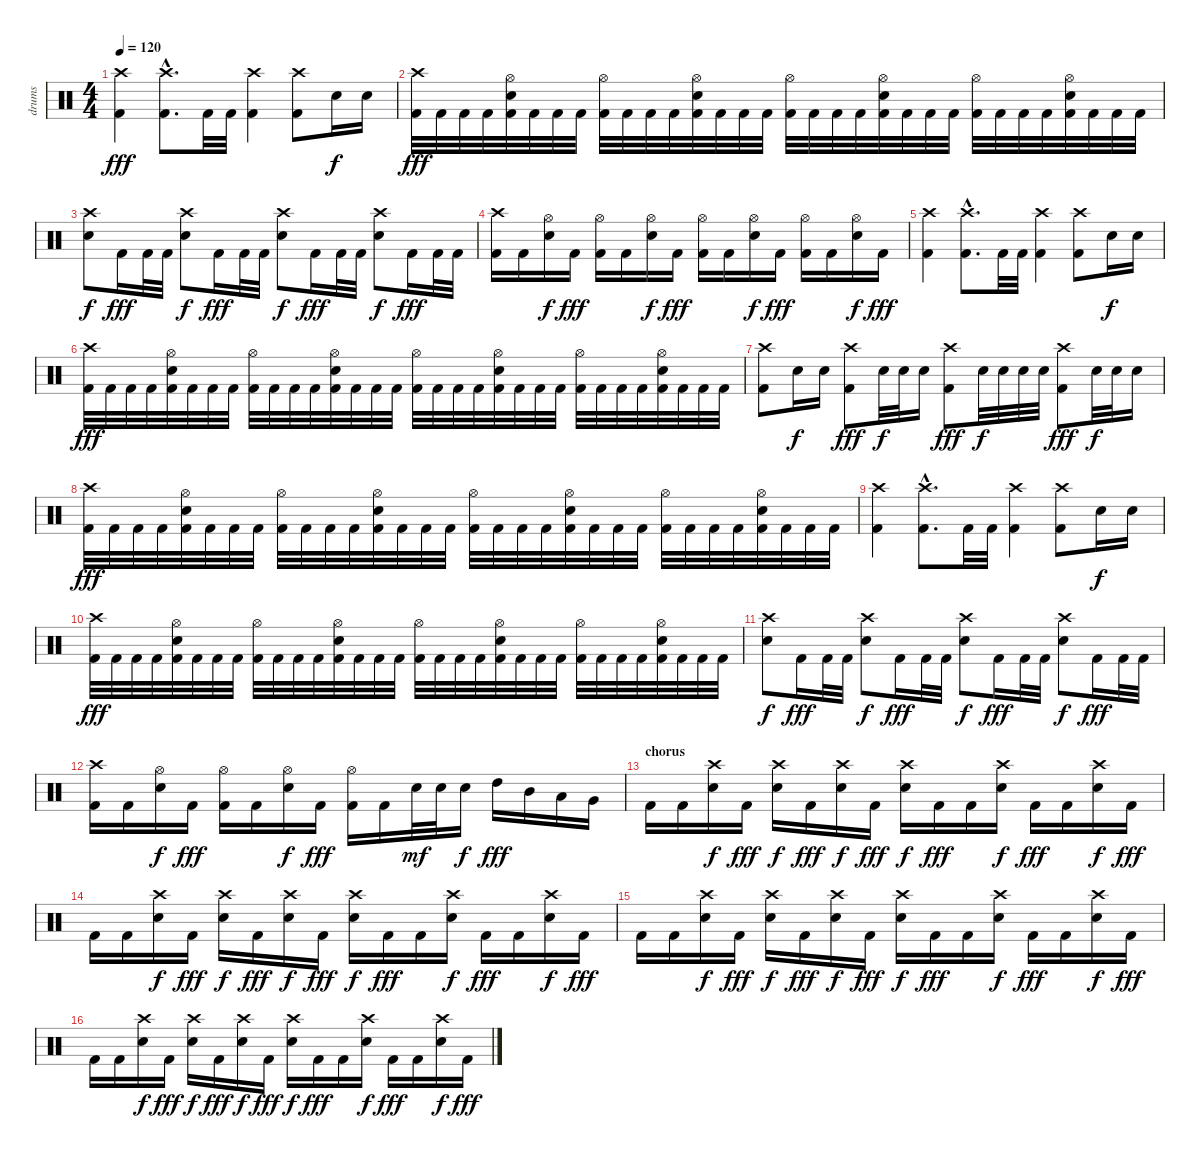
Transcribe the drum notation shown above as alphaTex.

\track ("drums" "drums") {instrument percussion}
\staff {score}
\articulation defaults
\ts (4 4)
\tempo 120
\clef neutral
\ks c
("Crash high (hit)" "Kick (hit) 2").4{dy fff} ("Crash high (hit)"{hac} "Kick (hit) 2"{hac}).8{d} "Kick (hit) 2".32 "Kick (hit) 2".32 ("Crash high (hit)" "Kick (hit) 2").4 ("Crash high (hit)" "Kick (hit) 2").8 "Snare (hit) 2".16{dy f} "Snare (hit) 2".16 |
("Crash high (hit)" "Kick (hit) 2").32{dy fff} "Kick (hit) 2".32 "Kick (hit) 2".32 "Kick (hit) 2".32 ("Hi-Hat (open)" "Snare (hit) 2" "Kick (hit) 2").32 "Kick (hit) 2".32 "Kick (hit) 2".32 "Kick (hit) 2".32 ("Hi-Hat (open)" "Kick (hit) 2").32 "Kick (hit) 2".32 "Kick (hit) 2".32 "Kick (hit) 2".32 ("Hi-Hat (open)" "Snare (hit) 2" "Kick (hit) 2").32 "Kick (hit) 2".32 "Kick (hit) 2".32 "Kick (hit) 2".32 ("Hi-Hat (open)" "Kick (hit) 2").32 "Kick (hit) 2".32 "Kick (hit) 2".32 "Kick (hit) 2".32 ("Hi-Hat (open)" "Snare (hit) 2" "Kick (hit) 2").32 "Kick (hit) 2".32 "Kick (hit) 2".32 "Kick (hit) 2".32 ("Hi-Hat (open)" "Kick (hit) 2").32 "Kick (hit) 2".32 "Kick (hit) 2".32 "Kick (hit) 2".32 ("Hi-Hat (open)" "Snare (hit) 2" "Kick (hit) 2").32 "Kick (hit) 2".32 "Kick (hit) 2".32 "Kick (hit) 2".32 |
("Crash high (hit)" "Snare (hit) 2").8{dy f} "Kick (hit) 2".16{dy fff} "Kick (hit) 2".32 "Kick (hit) 2".32 ("Crash high (hit)" "Snare (hit) 2").8{dy f} "Kick (hit) 2".16{dy fff} "Kick (hit) 2".32 "Kick (hit) 2".32 ("Crash high (hit)" "Snare (hit) 2").8{dy f} "Kick (hit) 2".16{dy fff} "Kick (hit) 2".32 "Kick (hit) 2".32 ("Crash high (hit)" "Snare (hit) 2").8{dy f} "Kick (hit) 2".16{dy fff} "Kick (hit) 2".32 "Kick (hit) 2".32 |
("Crash high (hit)" "Kick (hit) 2").16 "Kick (hit) 2".16 ("Hi-Hat (open)" "Snare (hit) 2").16{dy f} "Kick (hit) 2".16{dy fff} ("Hi-Hat (open)" "Kick (hit) 2").16 "Kick (hit) 2".16 ("Hi-Hat (open)" "Snare (hit) 2").16{dy f} "Kick (hit) 2".16{dy fff} ("Hi-Hat (open)" "Kick (hit) 2").16 "Kick (hit) 2".16 ("Hi-Hat (open)" "Snare (hit) 2").16{dy f} "Kick (hit) 2".16{dy fff} ("Hi-Hat (open)" "Kick (hit) 2").16 "Kick (hit) 2".16 ("Hi-Hat (open)" "Snare (hit) 2").16{dy f} "Kick (hit) 2".16{dy fff} |
("Crash high (hit)" "Kick (hit) 2").4 ("Crash high (hit)"{hac} "Kick (hit) 2"{hac}).8{d} "Kick (hit) 2".32 "Kick (hit) 2".32 ("Crash high (hit)" "Kick (hit) 2").4 ("Crash high (hit)" "Kick (hit) 2").8 "Snare (hit) 2".16{dy f} "Snare (hit) 2".16 |
("Crash high (hit)" "Kick (hit) 2").32{dy fff} "Kick (hit) 2".32 "Kick (hit) 2".32 "Kick (hit) 2".32 ("Hi-Hat (open)" "Snare (hit) 2" "Kick (hit) 2").32 "Kick (hit) 2".32 "Kick (hit) 2".32 "Kick (hit) 2".32 ("Hi-Hat (open)" "Kick (hit) 2").32 "Kick (hit) 2".32 "Kick (hit) 2".32 "Kick (hit) 2".32 ("Hi-Hat (open)" "Snare (hit) 2" "Kick (hit) 2").32 "Kick (hit) 2".32 "Kick (hit) 2".32 "Kick (hit) 2".32 ("Hi-Hat (open)" "Kick (hit) 2").32 "Kick (hit) 2".32 "Kick (hit) 2".32 "Kick (hit) 2".32 ("Hi-Hat (open)" "Snare (hit) 2" "Kick (hit) 2").32 "Kick (hit) 2".32 "Kick (hit) 2".32 "Kick (hit) 2".32 ("Hi-Hat (open)" "Kick (hit) 2").32 "Kick (hit) 2".32 "Kick (hit) 2".32 "Kick (hit) 2".32 ("Hi-Hat (open)" "Snare (hit) 2" "Kick (hit) 2").32 "Kick (hit) 2".32 "Kick (hit) 2".32 "Kick (hit) 2".32 |
("Crash high (hit)" "Kick (hit) 2").8 "Snare (hit) 2".16{dy f} "Snare (hit) 2".16 ("Crash high (hit)" "Kick (hit) 2").8{dy fff} "Snare (hit) 2".32{dy f} "Snare (hit) 2".32 "Snare (hit) 2".16 ("Crash high (hit)" "Kick (hit) 2").8{dy fff} "Snare (hit) 2".32{dy f} "Snare (hit) 2".32 "Snare (hit) 2".32 "Snare (hit) 2".32 ("Crash high (hit)" "Kick (hit) 2").8{dy fff} "Snare (hit) 2".32{dy f} "Snare (hit) 2".32 "Snare (hit) 2".16 |
("Crash high (hit)" "Kick (hit) 2").32{dy fff} "Kick (hit) 2".32 "Kick (hit) 2".32 "Kick (hit) 2".32 ("Hi-Hat (open)" "Snare (hit) 2" "Kick (hit) 2").32 "Kick (hit) 2".32 "Kick (hit) 2".32 "Kick (hit) 2".32 ("Hi-Hat (open)" "Kick (hit) 2").32 "Kick (hit) 2".32 "Kick (hit) 2".32 "Kick (hit) 2".32 ("Hi-Hat (open)" "Snare (hit) 2" "Kick (hit) 2").32 "Kick (hit) 2".32 "Kick (hit) 2".32 "Kick (hit) 2".32 ("Hi-Hat (open)" "Kick (hit) 2").32 "Kick (hit) 2".32 "Kick (hit) 2".32 "Kick (hit) 2".32 ("Hi-Hat (open)" "Snare (hit) 2" "Kick (hit) 2").32 "Kick (hit) 2".32 "Kick (hit) 2".32 "Kick (hit) 2".32 ("Hi-Hat (open)" "Kick (hit) 2").32 "Kick (hit) 2".32 "Kick (hit) 2".32 "Kick (hit) 2".32 ("Hi-Hat (open)" "Snare (hit) 2" "Kick (hit) 2").32 "Kick (hit) 2".32 "Kick (hit) 2".32 "Kick (hit) 2".32 |
("Crash high (hit)" "Kick (hit) 2").4 ("Crash high (hit)"{hac} "Kick (hit) 2"{hac}).8{d} "Kick (hit) 2".32 "Kick (hit) 2".32 ("Crash high (hit)" "Kick (hit) 2").4 ("Crash high (hit)" "Kick (hit) 2").8 "Snare (hit) 2".16{dy f} "Snare (hit) 2".16 |
("Crash high (hit)" "Kick (hit) 2").32{dy fff} "Kick (hit) 2".32 "Kick (hit) 2".32 "Kick (hit) 2".32 ("Hi-Hat (open)" "Snare (hit) 2" "Kick (hit) 2").32 "Kick (hit) 2".32 "Kick (hit) 2".32 "Kick (hit) 2".32 ("Hi-Hat (open)" "Kick (hit) 2").32 "Kick (hit) 2".32 "Kick (hit) 2".32 "Kick (hit) 2".32 ("Hi-Hat (open)" "Snare (hit) 2" "Kick (hit) 2").32 "Kick (hit) 2".32 "Kick (hit) 2".32 "Kick (hit) 2".32 ("Hi-Hat (open)" "Kick (hit) 2").32 "Kick (hit) 2".32 "Kick (hit) 2".32 "Kick (hit) 2".32 ("Hi-Hat (open)" "Snare (hit) 2" "Kick (hit) 2").32 "Kick (hit) 2".32 "Kick (hit) 2".32 "Kick (hit) 2".32 ("Hi-Hat (open)" "Kick (hit) 2").32 "Kick (hit) 2".32 "Kick (hit) 2".32 "Kick (hit) 2".32 ("Hi-Hat (open)" "Snare (hit) 2" "Kick (hit) 2").32 "Kick (hit) 2".32 "Kick (hit) 2".32 "Kick (hit) 2".32 |
("Crash high (hit)" "Snare (hit) 2").8{dy f} "Kick (hit) 2".16{dy fff} "Kick (hit) 2".32 "Kick (hit) 2".32 ("Crash high (hit)" "Snare (hit) 2").8{dy f} "Kick (hit) 2".16{dy fff} "Kick (hit) 2".32 "Kick (hit) 2".32 ("Crash high (hit)" "Snare (hit) 2").8{dy f} "Kick (hit) 2".16{dy fff} "Kick (hit) 2".32 "Kick (hit) 2".32 ("Crash high (hit)" "Snare (hit) 2").8{dy f} "Kick (hit) 2".16{dy fff} "Kick (hit) 2".32 "Kick (hit) 2".32 |
("Crash high (hit)" "Kick (hit) 2").16 "Kick (hit) 2".16 ("Hi-Hat (open)" "Snare (hit) 2").16{dy f} "Kick (hit) 2".16{dy fff} ("Hi-Hat (open)" "Kick (hit) 2").16 "Kick (hit) 2".16 ("Hi-Hat (open)" "Snare (hit) 2").16{dy f} "Kick (hit) 2".16{dy fff} ("Hi-Hat (open)" "Kick (hit) 2").16 "Kick (hit) 2".16 "Snare (hit) 2".32{dy mf} "Snare (hit) 2".32 "Snare (hit) 2".16{dy f} "High Tom (hit)".16{dy fff} "Mid Tom (hit)".16 "Low Tom (hit)".16 "Very Low Tom (hit)".16 |
\section ("" "chorus")
"Kick (hit) 2".16 "Kick (hit) 2".16 ("Crash high (hit)" "Snare (hit) 2").16{dy f} "Kick (hit) 2".16{dy fff} ("Crash high (hit)" "Snare (hit) 2").16{dy f} "Kick (hit) 2".16{dy fff} ("Crash high (hit)" "Snare (hit) 2").16{dy f} "Kick (hit) 2".16{dy fff} ("Crash high (hit)" "Snare (hit) 2").16{dy f} "Kick (hit) 2".16{dy fff} "Kick (hit) 2".16 ("Crash high (hit)" "Snare (hit) 2").16{dy f} "Kick (hit) 2".16{dy fff} "Kick (hit) 2".16 ("Crash high (hit)" "Snare (hit) 2").16{dy f} "Kick (hit) 2".16{dy fff} |
"Kick (hit) 2".16 "Kick (hit) 2".16 ("Crash high (hit)" "Snare (hit) 2").16{dy f} "Kick (hit) 2".16{dy fff} ("Crash high (hit)" "Snare (hit) 2").16{dy f} "Kick (hit) 2".16{dy fff} ("Crash high (hit)" "Snare (hit) 2").16{dy f} "Kick (hit) 2".16{dy fff} ("Crash high (hit)" "Snare (hit) 2").16{dy f} "Kick (hit) 2".16{dy fff} "Kick (hit) 2".16 ("Crash high (hit)" "Snare (hit) 2").16{dy f} "Kick (hit) 2".16{dy fff} "Kick (hit) 2".16 ("Crash high (hit)" "Snare (hit) 2").16{dy f} "Kick (hit) 2".16{dy fff} |
"Kick (hit) 2".16 "Kick (hit) 2".16 ("Crash high (hit)" "Snare (hit) 2").16{dy f} "Kick (hit) 2".16{dy fff} ("Crash high (hit)" "Snare (hit) 2").16{dy f} "Kick (hit) 2".16{dy fff} ("Crash high (hit)" "Snare (hit) 2").16{dy f} "Kick (hit) 2".16{dy fff} ("Crash high (hit)" "Snare (hit) 2").16{dy f} "Kick (hit) 2".16{dy fff} "Kick (hit) 2".16 ("Crash high (hit)" "Snare (hit) 2").16{dy f} "Kick (hit) 2".16{dy fff} "Kick (hit) 2".16 ("Crash high (hit)" "Snare (hit) 2").16{dy f} "Kick (hit) 2".16{dy fff} |
"Kick (hit) 2".16 "Kick (hit) 2".16 ("Crash high (hit)" "Snare (hit) 2").16{dy f} "Kick (hit) 2".16{dy fff} ("Crash high (hit)" "Snare (hit) 2").16{dy f} "Kick (hit) 2".16{dy fff} ("Crash high (hit)" "Snare (hit) 2").16{dy f} "Kick (hit) 2".16{dy fff} ("Crash high (hit)" "Snare (hit) 2").16{dy f} "Kick (hit) 2".16{dy fff} "Kick (hit) 2".16 ("Crash high (hit)" "Snare (hit) 2").16{dy f} "Kick (hit) 2".16{dy fff} "Kick (hit) 2".16 ("Crash high (hit)" "Snare (hit) 2").16{dy f} "Kick (hit) 2".16{dy fff}
